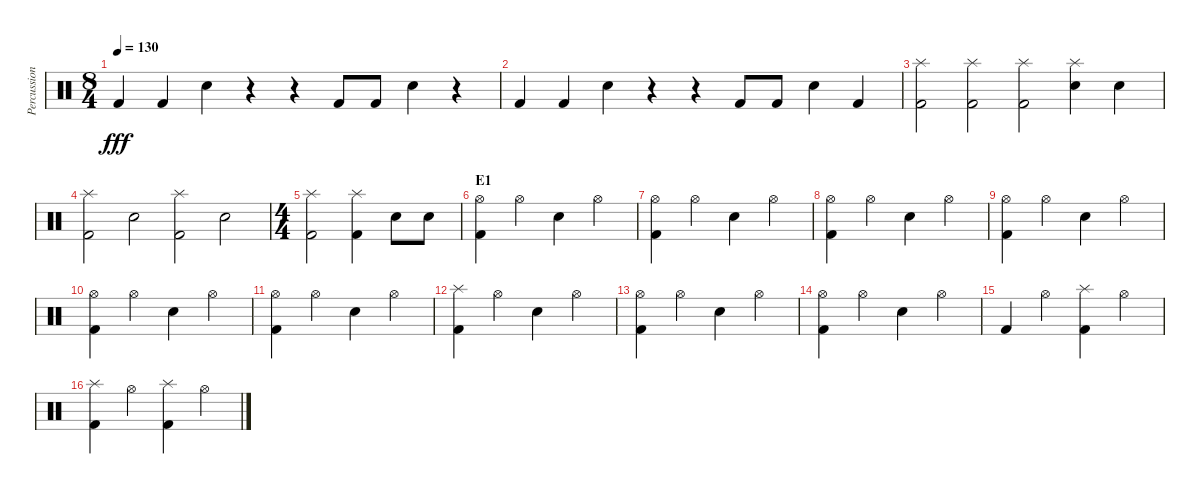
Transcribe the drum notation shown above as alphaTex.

\track ("Percussion" "Percussion") {instrument percussion}
\staff {score}
\articulation defaults
\ts (8 4)
\tempo 130
\clef neutral
\ks c "Kick (hit) 2".4{dy fff} "Kick (hit) 2".4 "Electric Snare (hit)".4
r.4 r.4 "Kick (hit) 2".8 "Kick (hit) 2".8 "Electric Snare (hit)".4 r.4 |
"Kick (hit) 2".4 "Kick (hit) 2".4 "Electric Snare (hit)".4 r.4 r.4 "Kick (hit) 2".8 "Kick (hit) 2".8 "Electric Snare (hit)".4 "Kick (hit) 2".4 |
("Kick (hit) 2" "Splash (hit)").2 ("Kick (hit) 2" "Splash (hit)").2 ("Kick (hit) 2" "Splash (hit)").2 ("Electric Snare (hit)" "Splash (hit)").4 "Electric Snare (hit)".4 |
("Kick (hit) 2" "Splash (hit)").2 "Electric Snare (hit)".2 ("Kick (hit) 2" "Splash (hit)").2 "Electric Snare (hit)".2 |
\ts (4 4)
("Kick (hit) 2" "Splash (hit)").2 ("Kick (hit) 2" "Splash (hit)").4 "Electric Snare (hit)".8 "Electric Snare (hit)".8 |
\section ("" "E1")
("Kick (hit) 2" "Hi-Hat (open)").4 "Hi-Hat (open)".4 "Electric Snare (hit)".4 "Hi-Hat (open)".4 |
("Kick (hit) 2" "Hi-Hat (open)").4 "Hi-Hat (open)".4 "Electric Snare (hit)".4 "Hi-Hat (open)".4 |
("Kick (hit) 2" "Hi-Hat (open)").4 "Hi-Hat (open)".4 "Electric Snare (hit)".4 "Hi-Hat (open)".4 |
("Kick (hit) 2" "Hi-Hat (open)").4 "Hi-Hat (open)".4 "Electric Snare (hit)".4 "Hi-Hat (open)".4 |
("Kick (hit) 2" "Hi-Hat (open)").4 "Hi-Hat (open)".4 "Electric Snare (hit)".4 "Hi-Hat (open)".4 |
("Kick (hit) 2" "Hi-Hat (open)").4 "Hi-Hat (open)".4 "Electric Snare (hit)".4 "Hi-Hat (open)".4 |
("Kick (hit) 2" "Splash (hit)").4 "Hi-Hat (open)".4 "Electric Snare (hit)".4 "Hi-Hat (open)".4 |
("Kick (hit) 2" "Hi-Hat (open)").4 "Hi-Hat (open)".4 "Electric Snare (hit)".4 "Hi-Hat (open)".4 |
("Kick (hit) 2" "Hi-Hat (open)").4 "Hi-Hat (open)".4 "Electric Snare (hit)".4 "Hi-Hat (open)".4 |
"Kick (hit) 2".4 "Hi-Hat (open)".4 ("Splash (hit)" "Kick (hit) 2").4 "Hi-Hat (open)".4 |
("Kick (hit) 2" "Splash (hit)").4 "Hi-Hat (open)".4 ("Kick (hit) 2" "Splash (hit)").4 "Hi-Hat (open)".4
